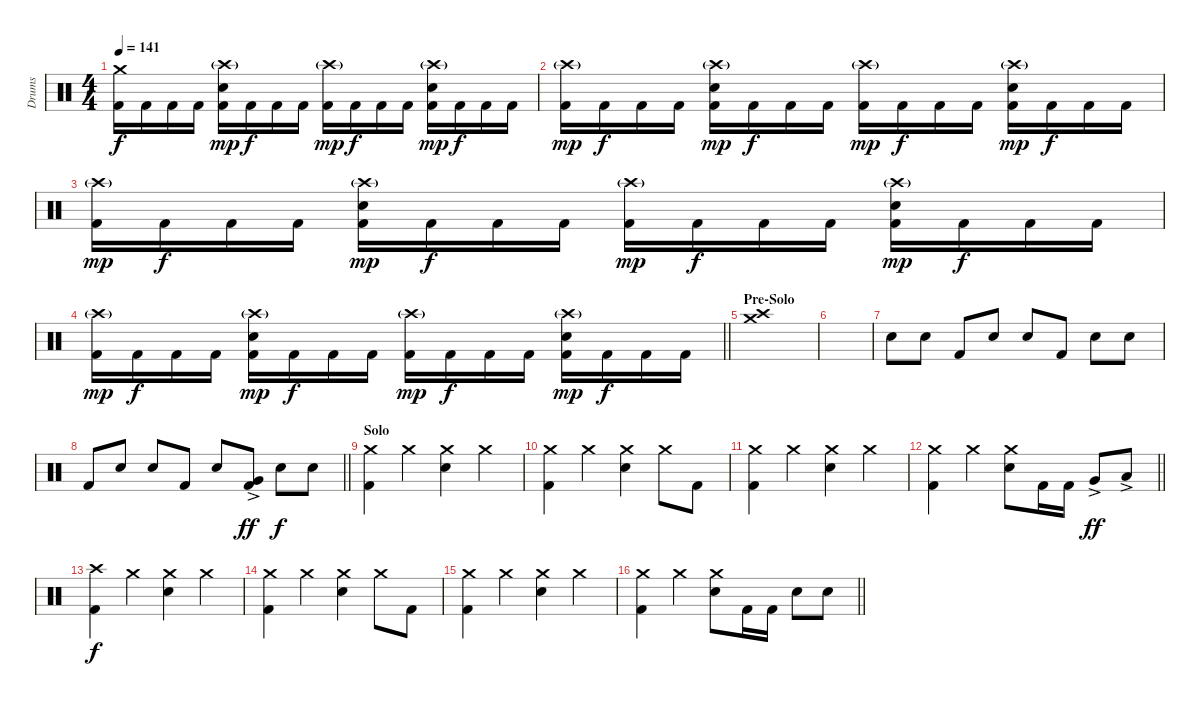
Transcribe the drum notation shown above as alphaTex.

\track ("Drums" "Drums") {instrument percussion}
\staff {score}
\articulation defaults
\ts (4 4)
\section ("" "")
\tempo 141
\clef neutral
\ks c
("Kick (hit) 2" "Crash medium (hit)").16{dy f} "Kick (hit) 2".16 "Kick (hit) 2".16 "Kick (hit) 2".16 ("Kick (hit) 2" "Snare (hit) 2" "Crash high (hit)"{g}).16{dy mp} "Kick (hit) 2".16{dy f} "Kick (hit) 2".16 "Kick (hit) 2".16 ("Kick (hit) 2" "Crash high (hit)"{g}).16{dy mp} "Kick (hit) 2".16{dy f} "Kick (hit) 2".16 "Kick (hit) 2".16 ("Kick (hit) 2" "Snare (hit) 2" "Crash high (hit)"{g}).16{dy mp} "Kick (hit) 2".16{dy f} "Kick (hit) 2".16 "Kick (hit) 2".16 |
("Kick (hit) 2" "Crash high (hit)"{g}).16{dy mp} "Kick (hit) 2".16{dy f} "Kick (hit) 2".16 "Kick (hit) 2".16 ("Kick (hit) 2" "Snare (hit) 2" "Crash high (hit)"{g}).16{dy mp} "Kick (hit) 2".16{dy f} "Kick (hit) 2".16 "Kick (hit) 2".16 ("Kick (hit) 2" "Crash high (hit)"{g}).16{dy mp} "Kick (hit) 2".16{dy f} "Kick (hit) 2".16 "Kick (hit) 2".16 ("Kick (hit) 2" "Snare (hit) 2" "Crash high (hit)"{g}).16{dy mp} "Kick (hit) 2".16{dy f} "Kick (hit) 2".16 "Kick (hit) 2".16 |
("Kick (hit) 2" "Crash high (hit)"{g}).16{dy mp} "Kick (hit) 2".16{dy f} "Kick (hit) 2".16 "Kick (hit) 2".16 ("Kick (hit) 2" "Snare (hit) 2" "Crash high (hit)"{g}).16{dy mp} "Kick (hit) 2".16{dy f} "Kick (hit) 2".16 "Kick (hit) 2".16 ("Kick (hit) 2" "Crash high (hit)"{g}).16{dy mp} "Kick (hit) 2".16{dy f} "Kick (hit) 2".16 "Kick (hit) 2".16 ("Kick (hit) 2" "Snare (hit) 2" "Crash high (hit)"{g}).16{dy mp} "Kick (hit) 2".16{dy f} "Kick (hit) 2".16 "Kick (hit) 2".16 |
\barLineRight lightlight
("Kick (hit) 2" "Crash high (hit)"{g}).16{dy mp} "Kick (hit) 2".16{dy f} "Kick (hit) 2".16 "Kick (hit) 2".16 ("Kick (hit) 2" "Snare (hit) 2" "Crash high (hit)"{g}).16{dy mp} "Kick (hit) 2".16{dy f} "Kick (hit) 2".16 "Kick (hit) 2".16 ("Kick (hit) 2" "Crash high (hit)"{g}).16{dy mp} "Kick (hit) 2".16{dy f} "Kick (hit) 2".16 "Kick (hit) 2".16 ("Kick (hit) 2" "Snare (hit) 2" "Crash high (hit)"{g}).16{dy mp} "Kick (hit) 2".16{dy f} "Kick (hit) 2".16 "Kick (hit) 2".16 |
\section ("" "Pre-Solo")
("Crash high (hit)" "Crash medium (hit)").1 |
|
"Snare (hit) 2".8 "Snare (hit) 2".8 "Kick (hit) 2".8 "Snare (hit) 2".8 "Snare (hit) 2".8 "Kick (hit) 2".8 "Snare (hit) 2".8 "Snare (hit) 2".8 |
\barLineRight lightlight "Kick (hit) 2".8 "Snare (hit) 2".8 "Snare (hit) 2".8 "Kick (hit) 2".8 "Snare (hit) 2".8
("Kick (hit) 2" "Very Low Tom (hit)"{ac}).8{dy ff} "Snare (hit) 2".8{dy f} "Snare (hit) 2".8 |
\section ("" "Solo")
("Kick (hit) 2" "Crash medium (hit)").4 "Crash medium (hit)".4 ("Snare (hit) 2" "Crash medium (hit)").4 "Crash medium (hit)".4 |
("Kick (hit) 2" "Crash medium (hit)").4 "Crash medium (hit)".4 ("Snare (hit) 2" "Crash medium (hit)").4 "Crash medium (hit)".8 "Kick (hit) 2".8 |
("Kick (hit) 2" "Crash medium (hit)").4 "Crash medium (hit)".4 ("Snare (hit) 2" "Crash medium (hit)").4 "Crash medium (hit)".4 |
\barLineRight lightlight
("Kick (hit) 2" "Crash medium (hit)").4 "Crash medium (hit)".4 ("Snare (hit) 2" "Crash medium (hit)").8 "Kick (hit) 2".16 "Kick (hit) 2".16 "Very Low Tom (hit)"{ac}.8{dy ff} "Low Floor Tom (hit)"{ac}.8 |
\section ("" "")
("Kick (hit) 2" "Crash high (hit)").4{dy f} "Crash medium (hit)".4 ("Snare (hit) 2" "Crash medium (hit)").4 "Crash medium (hit)".4 |
("Kick (hit) 2" "Crash medium (hit)").4 "Crash medium (hit)".4 ("Snare (hit) 2" "Crash medium (hit)").4 "Crash medium (hit)".8 "Kick (hit) 2".8 |
("Kick (hit) 2" "Crash medium (hit)").4 "Crash medium (hit)".4 ("Snare (hit) 2" "Crash medium (hit)").4 "Crash medium (hit)".4 |
\barLineRight lightlight
("Kick (hit) 2" "Crash medium (hit)").4 "Crash medium (hit)".4 ("Snare (hit) 2" "Crash medium (hit)").8 "Kick (hit) 2".16 "Kick (hit) 2".16 "Snare (hit) 2".8 "Snare (hit) 2".8
